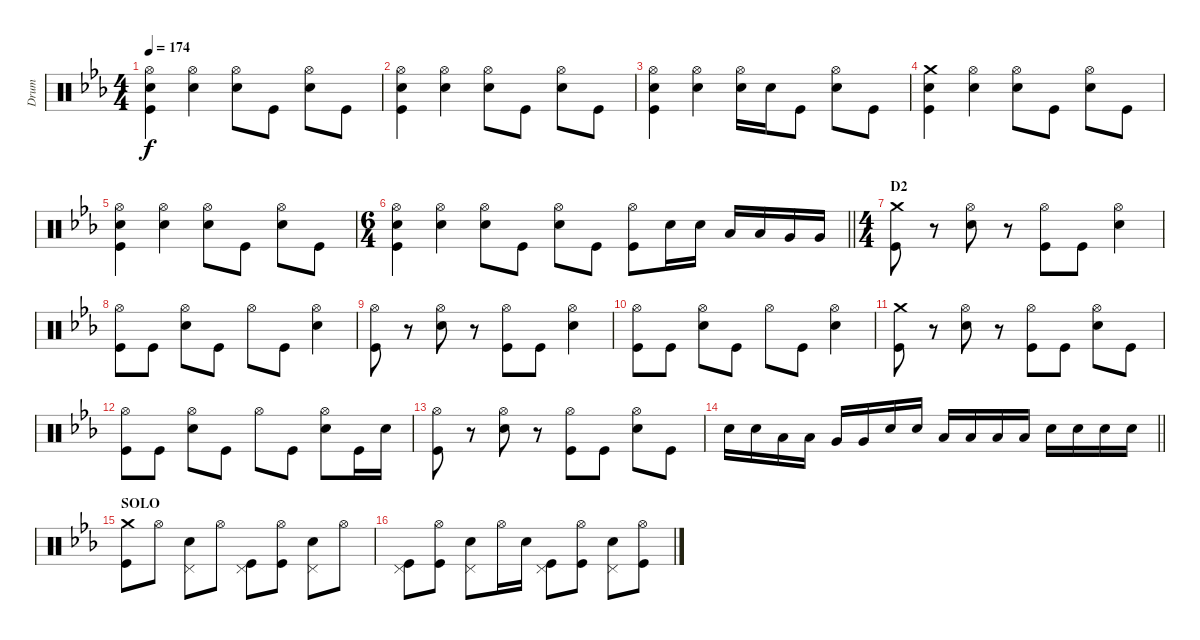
\track ("Drum" "Drum") {instrument percussion}
\staff {score}
\articulation defaults
\ts (4 4)
\tempo 174
\clef neutral
\ks eb
("Hi-Hat (open)" "Snare (hit) 2" "Kick (hit)").4{dy f} ("Hi-Hat (open)" "Snare (hit) 2").4 ("Hi-Hat (open)" "Snare (hit) 2").8 "Kick (hit)".8 ("Hi-Hat (open)" "Snare (hit) 2").8 "Kick (hit)".8 |
("Hi-Hat (open)" "Snare (hit) 2" "Kick (hit)").4 ("Hi-Hat (open)" "Snare (hit) 2").4 ("Hi-Hat (open)" "Snare (hit) 2").8 "Kick (hit)".8 ("Hi-Hat (open)" "Snare (hit) 2").8 "Kick (hit)".8 |
("Hi-Hat (open)" "Snare (hit) 2" "Kick (hit)").4 ("Hi-Hat (open)" "Snare (hit) 2").4 ("Hi-Hat (open)" "Snare (hit) 2").16 "Snare (hit) 2".16 "Kick (hit)".8 ("Hi-Hat (open)" "Snare (hit) 2").8 "Kick (hit)".8 |
("Crash medium (hit)" "Snare (hit) 2" "Kick (hit)").4 ("Hi-Hat (open)" "Snare (hit) 2").4 ("Hi-Hat (open)" "Snare (hit) 2").8 "Kick (hit)".8 ("Hi-Hat (open)" "Snare (hit) 2").8 "Kick (hit)".8 |
("Hi-Hat (open)" "Snare (hit) 2" "Kick (hit)").4 ("Hi-Hat (open)" "Snare (hit) 2").4 ("Hi-Hat (open)" "Snare (hit) 2").8 "Kick (hit)".8 ("Hi-Hat (open)" "Snare (hit) 2").8 "Kick (hit)".8 |
\ts (6 4)
\barLineRight lightlight
("Hi-Hat (open)" "Snare (hit) 2" "Kick (hit)").4 ("Hi-Hat (open)" "Snare (hit) 2").4 ("Hi-Hat (open)" "Snare (hit) 2").8 "Kick (hit)".8 ("Hi-Hat (open)" "Snare (hit) 2").8 "Kick (hit)".8 ("Hi-Hat (open)" "Kick (hit)").8 "Snare (hit) 2".16 "Snare (hit) 2".16 "Low Tom (hit)".16 "Low Tom (hit)".16 "Very Low Tom (hit)".16 "Very Low Tom (hit)".16 |
\ts (4 4)
\section ("" "D2")
("Crash medium (hit)" "Kick (hit)").8 r.8 ("Hi-Hat (open)" "Snare (hit) 2").8 r.8 ("Hi-Hat (open)" "Kick (hit)").8 "Kick (hit)".8 ("Hi-Hat (open)" "Snare (hit) 2").4 |
("Hi-Hat (open)" "Kick (hit)").8 "Kick (hit)".8 ("Hi-Hat (open)" "Snare (hit) 2").8 "Kick (hit)".8 "Hi-Hat (open)".8 "Kick (hit)".8 ("Hi-Hat (open)" "Snare (hit) 2").4 |
("Hi-Hat (open)" "Kick (hit)").8 r.8 ("Hi-Hat (open)" "Snare (hit) 2").8 r.8 ("Hi-Hat (open)" "Kick (hit)").8 "Kick (hit)".8 ("Hi-Hat (open)" "Snare (hit) 2").4 |
("Hi-Hat (open)" "Kick (hit)").8 "Kick (hit)".8 ("Hi-Hat (open)" "Snare (hit) 2").8 "Kick (hit)".8 "Hi-Hat (open)".8 "Kick (hit)".8 ("Hi-Hat (open)" "Snare (hit) 2").4 |
("Crash medium (hit)" "Kick (hit)").8 r.8 ("Hi-Hat (open)" "Snare (hit) 2").8 r.8 ("Hi-Hat (open)" "Kick (hit)").8 "Kick (hit)".8 ("Hi-Hat (open)" "Snare (hit) 2").8 "Kick (hit)".8 |
("Hi-Hat (open)" "Kick (hit)").8 "Kick (hit)".8 ("Hi-Hat (open)" "Snare (hit) 2").8 "Kick (hit)".8 "Hi-Hat (open)".8 "Kick (hit)".8 ("Hi-Hat (open)" "Snare (hit) 2").8 "Kick (hit)".16 "Snare (hit) 2".16 |
("Hi-Hat (open)" "Kick (hit)").8 r.8 ("Hi-Hat (open)" "Snare (hit) 2").8 r.8 ("Hi-Hat (open)" "Kick (hit)").8 "Kick (hit)".8 ("Hi-Hat (open)" "Snare (hit) 2").8 "Kick (hit)".8 |
\barLineRight lightlight "Snare (hit) 2".16 "Snare (hit) 2".16 "Low Tom (hit)".16 "Low Tom (hit)".16 "Very Low Tom (hit)".16 "Very Low Tom (hit)".16 "Snare (hit) 2".16 "Snare (hit) 2".16 "Low Tom (hit)".16 "Low Tom (hit)".16 "Low Tom (hit)".16 "Low Tom (hit)".16 "Snare (hit) 2".16 "Snare (hit) 2".16 "Snare (hit) 2".16 "Snare (hit) 2".16
|
\section ("" "SOLO")
("Crash medium (hit)" "Kick (hit)").8 "Hi-Hat (open)".8 ("Pedal Hi-Hat (hit)" "Snare (hit) 2").8 "Hi-Hat (open)".8 ("Pedal Hi-Hat (hit)" "Kick (hit)").8 ("Hi-Hat (open)" "Kick (hit)").8 ("Pedal Hi-Hat (hit)" "Snare (hit) 2").8 "Hi-Hat (open)".8 |
("Pedal Hi-Hat (hit)" "Kick (hit)").8 ("Hi-Hat (open)" "Kick (hit)").8 ("Pedal Hi-Hat (hit)" "Snare (hit) 2").8 "Hi-Hat (open)".16 "Snare (hit) 2".16 ("Pedal Hi-Hat (hit)" "Kick (hit)").8 ("Hi-Hat (open)" "Kick (hit)").8 ("Pedal Hi-Hat (hit)" "Snare (hit) 2").8 ("Hi-Hat (open)" "Kick (hit)").8
